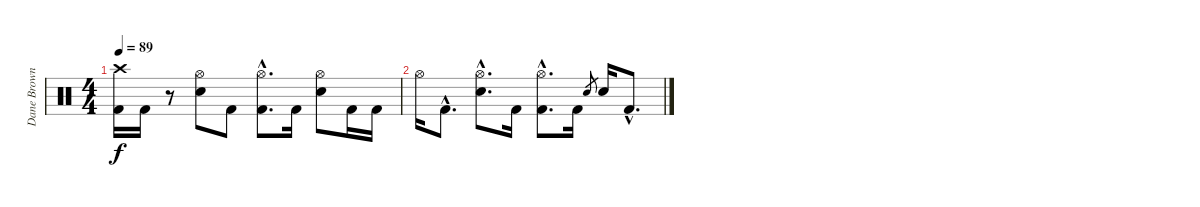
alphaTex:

\track ("Dane Brown (drums)" "Dane Brown") {instrument percussion}
\staff {score}
\articulation defaults
\ts (4 4)
\tempo 89
\clef neutral
\ks c
("Crash high (hit)" "Kick (hit) 2").16{dy f} "Kick (hit) 2".16 r.8 ("Hi-Hat (open)" "Electric Snare (hit)").8 "Kick (hit) 2".8 ("Hi-Hat (open)"{hac} "Kick (hit) 2"{hac}).8{d} "Kick (hit) 2".16 ("Hi-Hat (open)" "Electric Snare (hit)").8 "Kick (hit) 2".16 "Kick (hit) 2".16 |
"Hi-Hat (open)".16 "Kick (hit) 2"{hac}.8{d} ("Hi-Hat (open)"{hac} "Electric Snare (hit)"{hac}).8{d} "Kick (hit) 2".16 ("Hi-Hat (open)"{hac} "Kick (hit) 2"{hac}).8{d} "Kick (hit) 2".16 "Electric Snare (hit)".8{gr} "Electric Snare (hit)".16 "Kick (hit) 2"{hac}.8{d}
